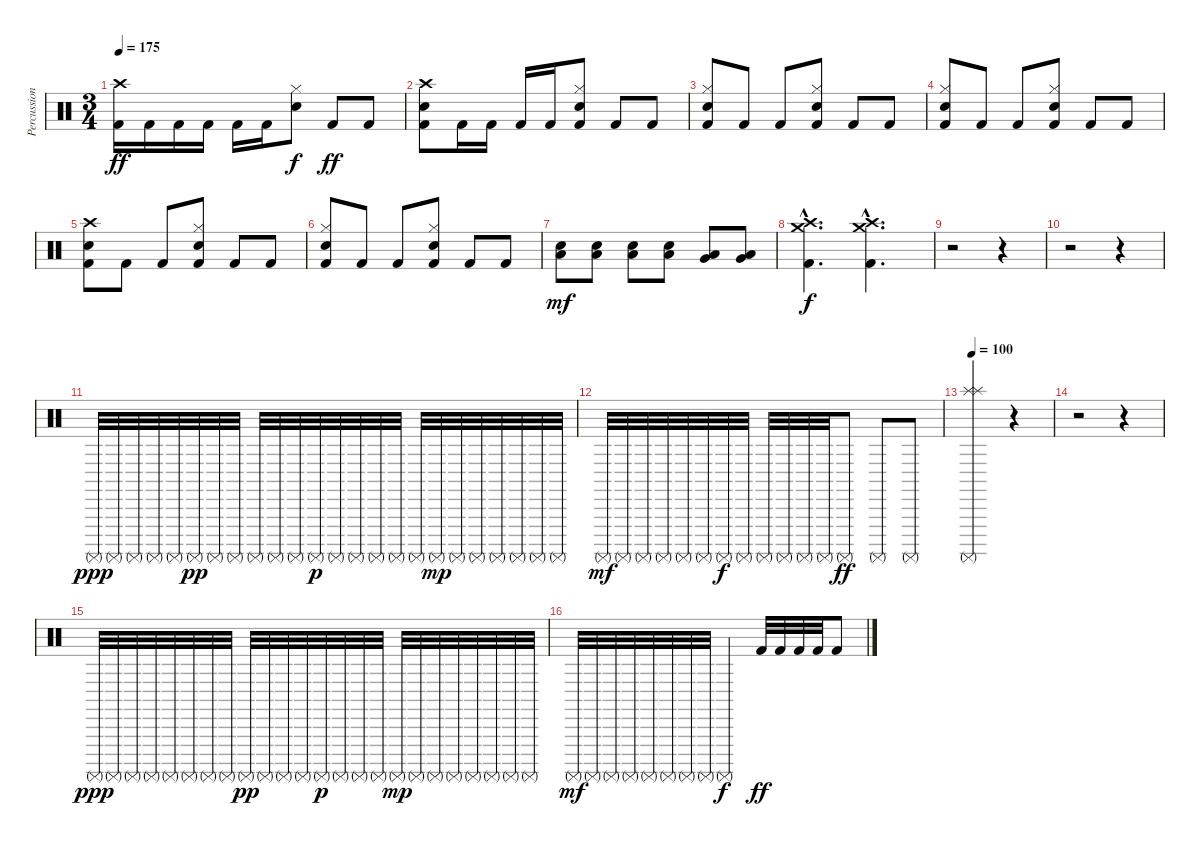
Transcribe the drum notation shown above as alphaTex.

\track ("Percussion" "Percussion") {instrument percussion}
\staff {score}
\articulation defaults
\ts (3 4)
\tempo 175
\clef neutral
\ks c
("Crash high (hit)" "Kick (hit) 2").16{dy ff volume 12} "Kick (hit) 2".16 "Kick (hit) 2".16 "Kick (hit) 2".16 "Kick (hit) 2".16 "Kick (hit) 2".16 ("Hi-Hat (closed)" "Snare (hit) 2").8{dy f} "Kick (hit) 2".8{dy ff} "Kick (hit) 2".8 |
("Crash high (hit)" "Snare (hit) 2" "Kick (hit) 2").8 "Kick (hit) 2".16 "Kick (hit) 2".16 "Kick (hit) 2".16 "Kick (hit) 2".16 ("Hi-Hat (closed)" "Snare (hit) 2" "Kick (hit) 2").8 "Kick (hit) 2".8 "Kick (hit) 2".8 |
("Hi-Hat (closed)" "Snare (hit) 2" "Kick (hit) 2").8 "Kick (hit) 2".8 "Kick (hit) 2".8 ("Hi-Hat (closed)" "Snare (hit) 2" "Kick (hit) 2").8 "Kick (hit) 2".8 "Kick (hit) 2".8 |
("Hi-Hat (closed)" "Snare (hit) 2" "Kick (hit) 2").8 "Kick (hit) 2".8 "Kick (hit) 2".8 ("Hi-Hat (closed)" "Snare (hit) 2" "Kick (hit) 2").8 "Kick (hit) 2".8 "Kick (hit) 2".8 |
("Crash high (hit)" "Snare (hit) 2" "Kick (hit) 2").8 "Kick (hit) 2".8 "Kick (hit) 2".8 ("Hi-Hat (closed)" "Snare (hit) 2" "Kick (hit) 2").8 "Kick (hit) 2".8 "Kick (hit) 2".8 |
("Hi-Hat (closed)" "Snare (hit) 2" "Kick (hit) 2").8 "Kick (hit) 2".8 "Kick (hit) 2".8 ("Hi-Hat (closed)" "Snare (hit) 2" "Kick (hit) 2").8 "Kick (hit) 2".8 "Kick (hit) 2".8 |
("Low Floor Tom (hit)" "Snare (hit) 2").8{dy mf} ("Low Floor Tom (hit)" "Snare (hit) 2").8 ("Low Floor Tom (hit)" "Snare (hit) 2").8 ("Low Floor Tom (hit)" "Snare (hit) 2").8 ("Very Low Tom (hit)" "Low Floor Tom (hit)").8 ("Very Low Tom (hit)" "Low Floor Tom (hit)").8 |
("Crash medium (hit)"{hac} "Crash high (hit)"{hac} "Kick (hit) 2"{hac}).4{d dy f} ("Crash medium (hit)"{hac} "Crash high (hit)"{hac} "Kick (hit) 2"{hac}).4{d} |
r.2 r.4 |
r.2 r.4 |
"Surdo (mute)".32{dy ppp} "Surdo (mute)".32 "Surdo (mute)".32 "Surdo (mute)".32 "Surdo (mute)".32 "Surdo (mute)".32{dy pp} "Surdo (mute)".32 "Surdo (mute)".32 "Surdo (mute)".32 "Surdo (mute)".32 "Surdo (mute)".32 "Surdo (mute)".32{dy p} "Surdo (mute)".32 "Surdo (mute)".32 "Surdo (mute)".32 "Surdo (mute)".32 "Surdo (mute)".32 "Surdo (mute)".32{dy mp} "Surdo (mute)".32 "Surdo (mute)".32 "Surdo (mute)".32 "Surdo (mute)".32 "Surdo (mute)".32 "Surdo (mute)".32 |
"Surdo (mute)".32{dy mf} "Surdo (mute)".32 "Surdo (mute)".32 "Surdo (mute)".32 "Surdo (mute)".32 "Surdo (mute)".32 "Surdo (mute)".32{dy f} "Surdo (mute)".32 "Surdo (mute)".32 "Surdo (mute)".32 "Surdo (mute)".32 "Surdo (mute)".32 "Surdo (mute)".8{dy ff} "Surdo (mute)".8 "Surdo (mute)".8 |
\tempo 100
("Splash (hit)" "Splash (hit)" "Surdo (mute)").2{volume 10} r.4 |
r.2 r.4 |
"Surdo (mute)".32{dy ppp} "Surdo (mute)".32 "Surdo (mute)".32 "Surdo (mute)".32 "Surdo (mute)".32 "Surdo (mute)".32 "Surdo (mute)".32 "Surdo (mute)".32 "Surdo (mute)".32{dy pp} "Surdo (mute)".32 "Surdo (mute)".32 "Surdo (mute)".32 "Surdo (mute)".32{dy p} "Surdo (mute)".32 "Surdo (mute)".32 "Surdo (mute)".32 "Surdo (mute)".32{dy mp} "Surdo (mute)".32 "Surdo (mute)".32 "Surdo (mute)".32 "Surdo (mute)".32 "Surdo (mute)".32 "Surdo (mute)".32 "Surdo (mute)".32 |
"Surdo (mute)".32{dy mf} "Surdo (mute)".32 "Surdo (mute)".32 "Surdo (mute)".32 "Surdo (mute)".32 "Surdo (mute)".32 "Surdo (mute)".32 "Surdo (mute)".32 "Surdo (mute)".4{dy f} "Kick (hit) 2".32{dy ff} "Kick (hit) 2".32 "Kick (hit) 2".32 "Kick (hit) 2".32 "Kick (hit) 2".8
